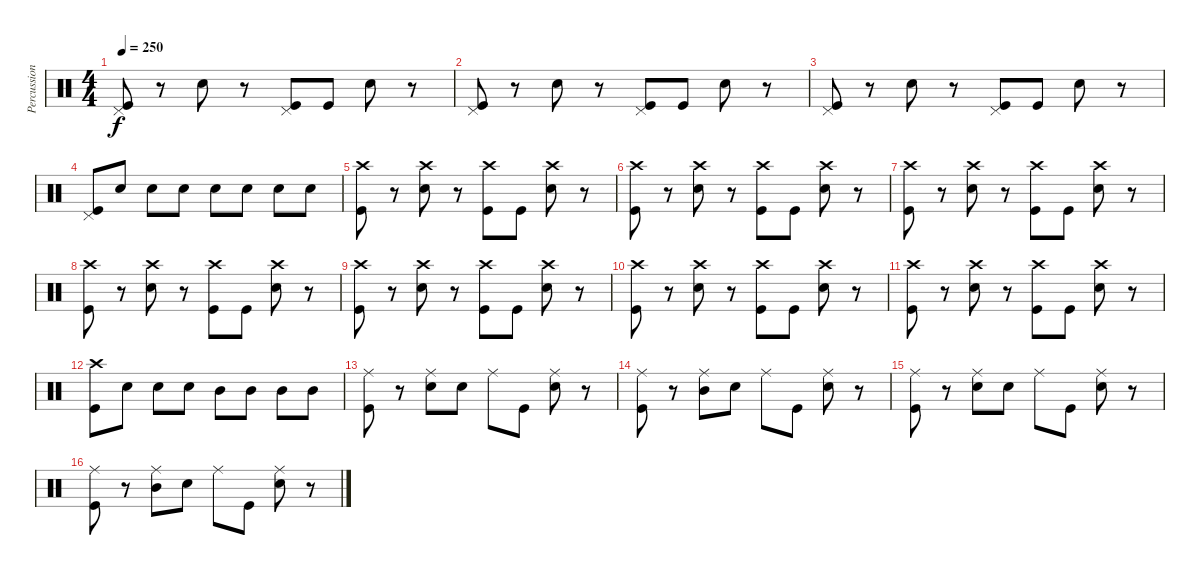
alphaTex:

\track ("Percussion" "Percussion") {instrument percussion}
\staff {score}
\articulation defaults
\ts (4 4)
\tempo 250
\clef neutral
\ks c
("Pedal Hi-Hat (hit)" "Kick (hit)").8{dy f} r.8 "Snare (hit) 2".8 r.8 ("Pedal Hi-Hat (hit)" "Kick (hit)").8 "Kick (hit)".8 "Snare (hit) 2".8 r.8 |
("Pedal Hi-Hat (hit)" "Kick (hit)").8 r.8 "Snare (hit) 2".8 r.8 ("Pedal Hi-Hat (hit)" "Kick (hit)").8 "Kick (hit)".8 "Snare (hit) 2".8 r.8 |
("Pedal Hi-Hat (hit)" "Kick (hit)").8 r.8 "Snare (hit) 2".8 r.8 ("Pedal Hi-Hat (hit)" "Kick (hit)").8 "Kick (hit)".8 "Snare (hit) 2".8 r.8 |
("Pedal Hi-Hat (hit)" "Kick (hit)").8 "Snare (hit) 2".8 "Snare (hit) 2".8 "Snare (hit) 2".8 "Snare (hit) 2".8 "Snare (hit) 2".8 "Snare (hit) 2".8 "Snare (hit) 2".8 |
("Crash high (hit)" "Kick (hit)").8 r.8 ("Crash high (hit)" "Snare (hit) 2").8 r.8 ("Crash high (hit)" "Kick (hit)").8 "Kick (hit)".8 ("Crash high (hit)" "Snare (hit) 2").8 r.8 |
("Crash high (hit)" "Kick (hit)").8 r.8 ("Crash high (hit)" "Snare (hit) 2").8 r.8 ("Crash high (hit)" "Kick (hit)").8 "Kick (hit)".8 ("Crash high (hit)" "Snare (hit) 2").8 r.8 |
("Crash high (hit)" "Kick (hit)").8 r.8 ("Crash high (hit)" "Snare (hit) 2").8 r.8 ("Crash high (hit)" "Kick (hit)").8 "Kick (hit)".8 ("Crash high (hit)" "Snare (hit) 2").8 r.8 |
("Crash high (hit)" "Kick (hit)").8 r.8 ("Crash high (hit)" "Snare (hit) 2").8 r.8 ("Crash high (hit)" "Kick (hit)").8 "Kick (hit)".8 ("Crash high (hit)" "Snare (hit) 2").8 r.8 |
("Crash high (hit)" "Kick (hit)").8 r.8 ("Crash high (hit)" "Snare (hit) 2").8 r.8 ("Crash high (hit)" "Kick (hit)").8 "Kick (hit)".8 ("Crash high (hit)" "Snare (hit) 2").8 r.8 |
("Crash high (hit)" "Kick (hit)").8 r.8 ("Crash high (hit)" "Snare (hit) 2").8 r.8 ("Crash high (hit)" "Kick (hit)").8 "Kick (hit)".8 ("Crash high (hit)" "Snare (hit) 2").8 r.8 |
("Crash high (hit)" "Kick (hit)").8 r.8 ("Crash high (hit)" "Snare (hit) 2").8 r.8 ("Crash high (hit)" "Kick (hit)").8 "Kick (hit)".8 ("Crash high (hit)" "Snare (hit) 2").8 r.8 |
("Crash high (hit)" "Kick (hit)").8 "Snare (hit) 2".8 "Snare (hit) 2".8 "Snare (hit) 2".8 "Mid Tom (hit)".8 "Mid Tom (hit)".8 "Mid Tom (hit)".8 "Mid Tom (hit)".8 |
("Ride (middle)" "Kick (hit)").8 r.8 ("Ride (middle)" "Snare (hit) 2").8 "Snare (hit) 2".8 "Ride (middle)".8 "Kick (hit)".8 ("Ride (middle)" "Snare (hit) 2").8 r.8 |
("Ride (middle)" "Kick (hit)").8 r.8 ("Ride (middle)" "Mid Tom (hit)").8 "Snare (hit) 2".8 "Ride (middle)".8 "Kick (hit)".8 ("Ride (middle)" "Snare (hit) 2").8 r.8 |
("Ride (middle)" "Kick (hit)").8 r.8 ("Ride (middle)" "Snare (hit) 2").8 "Snare (hit) 2".8 "Ride (middle)".8 "Kick (hit)".8 ("Ride (middle)" "Snare (hit) 2").8 r.8 |
("Ride (middle)" "Kick (hit)").8 r.8 ("Ride (middle)" "Mid Tom (hit)").8 "Snare (hit) 2".8 "Ride (middle)".8 "Kick (hit)".8 ("Ride (middle)" "Snare (hit) 2").8 r.8
